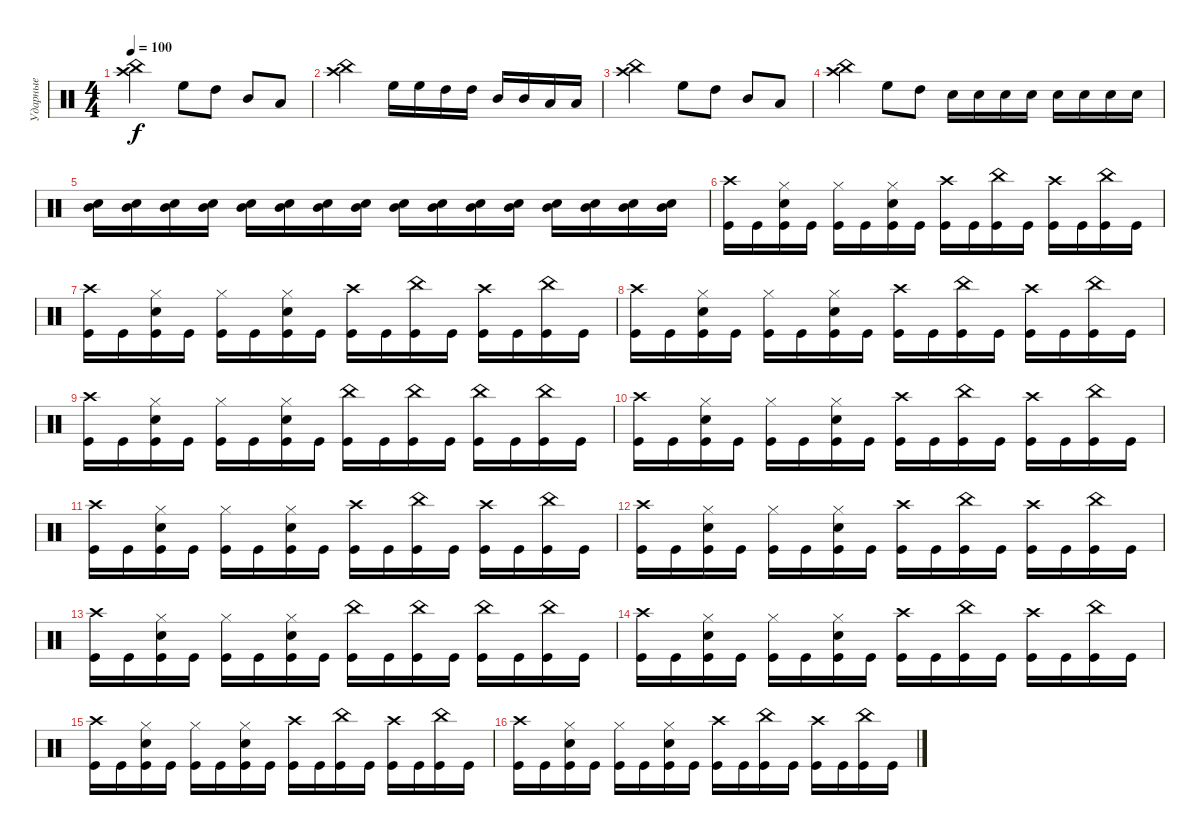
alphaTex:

\track ("Ударные" "Ударные") {instrument percussion}
\staff {score}
\articulation defaults
\ts (4 4)
\tempo 100
\clef neutral
\ks c
("Crash high (hit)" "China (hit)").2{dy f} "High Floor Tom (hit)".8 "High Tom (hit)".8 "Mid Tom (hit)".8 "Low Tom (hit)".8 |
("Crash high (hit)" "China (hit)").2 "High Floor Tom (hit)".16 "High Floor Tom (hit)".16 "High Tom (hit)".16 "High Tom (hit)".16 "Mid Tom (hit)".16 "Mid Tom (hit)".16 "Low Tom (hit)".16 "Low Tom (hit)".16 |
("Crash high (hit)" "China (hit)").2 "High Floor Tom (hit)".8 "High Tom (hit)".8 "Mid Tom (hit)".8 "Low Tom (hit)".8 |
("Crash high (hit)" "China (hit)").4 "High Floor Tom (hit)".8 "High Tom (hit)".8 "Snare (hit) 2".16 "Snare (hit) 2".16 "Snare (hit) 2".16 "Snare (hit) 2".16 "Snare (hit) 2".16 "Snare (hit) 2".16 "Snare (hit) 2".16 "Snare (hit) 2".16 |
("Snare (hit) 2" "Mid Tom (hit)").16 ("Snare (hit) 2" "Mid Tom (hit)").16 ("Snare (hit) 2" "Mid Tom (hit)").16 ("Snare (hit) 2" "Mid Tom (hit)").16 ("Snare (hit) 2" "Mid Tom (hit)").16 ("Snare (hit) 2" "Mid Tom (hit)").16 ("Snare (hit) 2" "Mid Tom (hit)").16 ("Snare (hit) 2" "Mid Tom (hit)").16 ("Snare (hit) 2" "Mid Tom (hit)").16 ("Snare (hit) 2" "Mid Tom (hit)").16 ("Snare (hit) 2" "Mid Tom (hit)").16 ("Snare (hit) 2" "Mid Tom (hit)").16 ("Snare (hit) 2" "Mid Tom (hit)").16 ("Snare (hit) 2" "Mid Tom (hit)").16 ("Snare (hit) 2" "Mid Tom (hit)").16 ("Snare (hit) 2" "Mid Tom (hit)").16 |
("Kick (hit)" "Crash high (hit)").16 "Kick (hit)".16 ("Kick (hit)" "Hi-Hat (closed)" "Snare (hit) 2").16 "Kick (hit)".16 ("Kick (hit)" "Hi-Hat (closed)").16 "Kick (hit)".16 ("Kick (hit)" "Hi-Hat (closed)" "Snare (hit) 2").16 "Kick (hit)".16 ("Kick (hit)" "Crash high (hit)").16 "Kick (hit)".16 ("Kick (hit)" "China (hit)").16 "Kick (hit)".16 ("Kick (hit)" "Crash high (hit)").16 "Kick (hit)".16 ("Kick (hit)" "China (hit)").16 "Kick (hit)".16 |
("Kick (hit)" "Crash high (hit)").16 "Kick (hit)".16 ("Kick (hit)" "Hi-Hat (closed)" "Snare (hit) 2").16 "Kick (hit)".16 ("Kick (hit)" "Hi-Hat (closed)").16 "Kick (hit)".16 ("Kick (hit)" "Hi-Hat (closed)" "Snare (hit) 2").16 "Kick (hit)".16 ("Kick (hit)" "Crash high (hit)").16 "Kick (hit)".16 ("Kick (hit)" "China (hit)").16 "Kick (hit)".16 ("Kick (hit)" "Crash high (hit)").16 "Kick (hit)".16 ("Kick (hit)" "China (hit)").16 "Kick (hit)".16 |
("Kick (hit)" "Crash high (hit)").16 "Kick (hit)".16 ("Kick (hit)" "Hi-Hat (closed)" "Snare (hit) 2").16 "Kick (hit)".16 ("Kick (hit)" "Hi-Hat (closed)").16 "Kick (hit)".16 ("Kick (hit)" "Hi-Hat (closed)" "Snare (hit) 2").16 "Kick (hit)".16 ("Kick (hit)" "Crash high (hit)").16 "Kick (hit)".16 ("Kick (hit)" "China (hit)").16 "Kick (hit)".16 ("Kick (hit)" "Crash high (hit)").16 "Kick (hit)".16 ("Kick (hit)" "China (hit)").16 "Kick (hit)".16 |
("Kick (hit)" "Crash high (hit)").16 "Kick (hit)".16 ("Kick (hit)" "Hi-Hat (closed)" "Snare (hit) 2").16 "Kick (hit)".16 ("Kick (hit)" "Hi-Hat (closed)").16 "Kick (hit)".16 ("Kick (hit)" "Hi-Hat (closed)" "Snare (hit) 2").16 "Kick (hit)".16 ("Kick (hit)" "China (hit)").16 "Kick (hit)".16 ("Kick (hit)" "China (hit)").16 "Kick (hit)".16 ("Kick (hit)" "China (hit)").16 "Kick (hit)".16 ("Kick (hit)" "China (hit)").16 "Kick (hit)".16 |
("Kick (hit)" "Crash high (hit)").16 "Kick (hit)".16 ("Kick (hit)" "Hi-Hat (closed)" "Snare (hit) 2").16 "Kick (hit)".16 ("Kick (hit)" "Hi-Hat (closed)").16 "Kick (hit)".16 ("Kick (hit)" "Hi-Hat (closed)" "Snare (hit) 2").16 "Kick (hit)".16 ("Kick (hit)" "Crash high (hit)").16 "Kick (hit)".16 ("Kick (hit)" "China (hit)").16 "Kick (hit)".16 ("Kick (hit)" "Crash high (hit)").16 "Kick (hit)".16 ("Kick (hit)" "China (hit)").16 "Kick (hit)".16 |
("Kick (hit)" "Crash high (hit)").16 "Kick (hit)".16 ("Kick (hit)" "Hi-Hat (closed)" "Snare (hit) 2").16 "Kick (hit)".16 ("Kick (hit)" "Hi-Hat (closed)").16 "Kick (hit)".16 ("Kick (hit)" "Hi-Hat (closed)" "Snare (hit) 2").16 "Kick (hit)".16 ("Kick (hit)" "Crash high (hit)").16 "Kick (hit)".16 ("Kick (hit)" "China (hit)").16 "Kick (hit)".16 ("Kick (hit)" "Crash high (hit)").16 "Kick (hit)".16 ("Kick (hit)" "China (hit)").16 "Kick (hit)".16 |
("Kick (hit)" "Crash high (hit)").16 "Kick (hit)".16 ("Kick (hit)" "Hi-Hat (closed)" "Snare (hit) 2").16 "Kick (hit)".16 ("Kick (hit)" "Hi-Hat (closed)").16 "Kick (hit)".16 ("Kick (hit)" "Hi-Hat (closed)" "Snare (hit) 2").16 "Kick (hit)".16 ("Kick (hit)" "Crash high (hit)").16 "Kick (hit)".16 ("Kick (hit)" "China (hit)").16 "Kick (hit)".16 ("Kick (hit)" "Crash high (hit)").16 "Kick (hit)".16 ("Kick (hit)" "China (hit)").16 "Kick (hit)".16 |
("Kick (hit)" "Crash high (hit)").16 "Kick (hit)".16 ("Kick (hit)" "Hi-Hat (closed)" "Snare (hit) 2").16 "Kick (hit)".16 ("Kick (hit)" "Hi-Hat (closed)").16 "Kick (hit)".16 ("Kick (hit)" "Hi-Hat (closed)" "Snare (hit) 2").16 "Kick (hit)".16 ("Kick (hit)" "China (hit)").16 "Kick (hit)".16 ("Kick (hit)" "China (hit)").16 "Kick (hit)".16 ("Kick (hit)" "China (hit)").16 "Kick (hit)".16 ("Kick (hit)" "China (hit)").16 "Kick (hit)".16 |
("Kick (hit)" "Crash high (hit)").16 "Kick (hit)".16 ("Kick (hit)" "Hi-Hat (closed)" "Snare (hit) 2").16 "Kick (hit)".16 ("Kick (hit)" "Hi-Hat (closed)").16 "Kick (hit)".16 ("Kick (hit)" "Hi-Hat (closed)" "Snare (hit) 2").16 "Kick (hit)".16 ("Kick (hit)" "Crash high (hit)").16 "Kick (hit)".16 ("Kick (hit)" "China (hit)").16 "Kick (hit)".16 ("Kick (hit)" "Crash high (hit)").16 "Kick (hit)".16 ("Kick (hit)" "China (hit)").16 "Kick (hit)".16 |
("Kick (hit)" "Crash high (hit)").16 "Kick (hit)".16 ("Kick (hit)" "Hi-Hat (closed)" "Snare (hit) 2").16 "Kick (hit)".16 ("Kick (hit)" "Hi-Hat (closed)").16 "Kick (hit)".16 ("Kick (hit)" "Hi-Hat (closed)" "Snare (hit) 2").16 "Kick (hit)".16 ("Kick (hit)" "Crash high (hit)").16 "Kick (hit)".16 ("Kick (hit)" "China (hit)").16 "Kick (hit)".16 ("Kick (hit)" "Crash high (hit)").16 "Kick (hit)".16 ("Kick (hit)" "China (hit)").16 "Kick (hit)".16 |
("Kick (hit)" "Crash high (hit)").16 "Kick (hit)".16 ("Kick (hit)" "Hi-Hat (closed)" "Snare (hit) 2").16 "Kick (hit)".16 ("Kick (hit)" "Hi-Hat (closed)").16 "Kick (hit)".16 ("Kick (hit)" "Hi-Hat (closed)" "Snare (hit) 2").16 "Kick (hit)".16 ("Kick (hit)" "Crash high (hit)").16 "Kick (hit)".16 ("Kick (hit)" "China (hit)").16 "Kick (hit)".16 ("Kick (hit)" "Crash high (hit)").16 "Kick (hit)".16 ("Kick (hit)" "China (hit)").16 "Kick (hit)".16
